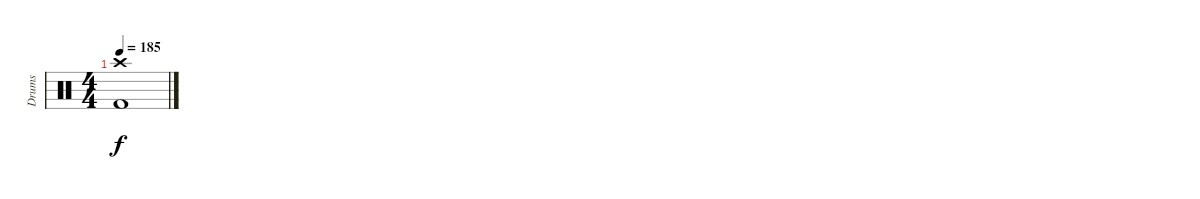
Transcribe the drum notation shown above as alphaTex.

\track ("Drums" "Drums") {instrument percussion}
\staff {score}
\articulation defaults
\ts (4 4)
\tempo 185
\clef neutral
\ks c
("Crash high (hit)" "Kick (hit) 2").1{dy f}
